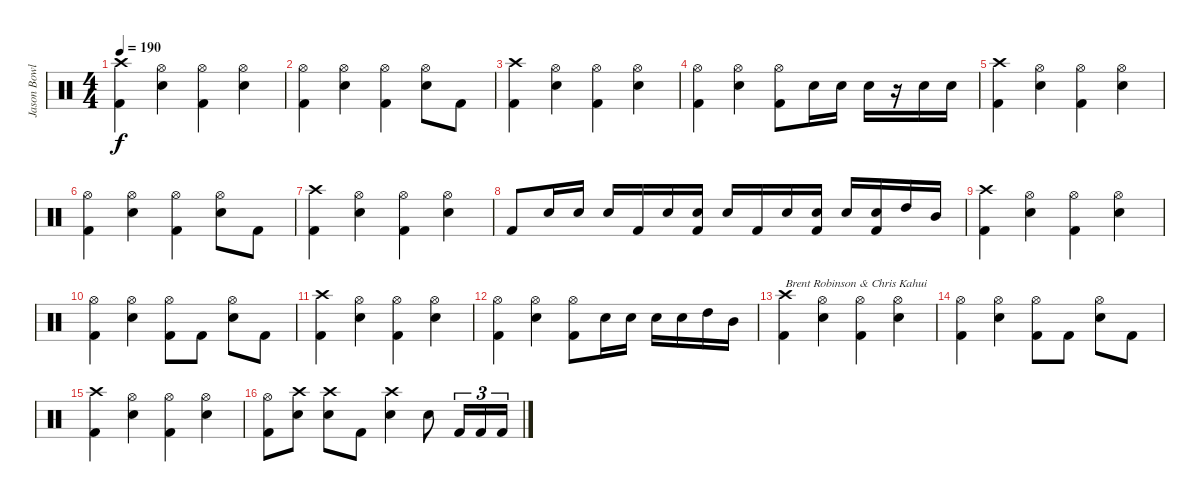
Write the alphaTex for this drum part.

\track ("Jason Bowld" "Jason Bowl") {instrument percussion}
\staff {score}
\articulation defaults
\ts (4 4)
\tempo 190
\clef neutral
\ks c
("Crash high (hit)" "Kick (hit) 2").4{dy f} ("Hi-Hat (open)" "Snare (hit) 2").4 ("Hi-Hat (open)" "Kick (hit) 2").4 ("Hi-Hat (open)" "Snare (hit) 2").4 |
("Hi-Hat (open)" "Kick (hit) 2").4 ("Hi-Hat (open)" "Snare (hit) 2").4 ("Hi-Hat (open)" "Kick (hit) 2").4 ("Hi-Hat (open)" "Snare (hit) 2").8 "Kick (hit) 2".8 |
("Crash high (hit)" "Kick (hit) 2").4 ("Hi-Hat (open)" "Snare (hit) 2").4 ("Hi-Hat (open)" "Kick (hit) 2").4 ("Hi-Hat (open)" "Snare (hit) 2").4 |
("Hi-Hat (open)" "Kick (hit) 2").4 ("Hi-Hat (open)" "Snare (hit) 2").4 ("Hi-Hat (open)" "Kick (hit) 2").8 "Snare (hit) 2".16 "Snare (hit) 2".16 "Snare (hit) 2".16 r.16 "Snare (hit) 2".16 "Snare (hit) 2".16 |
("Crash high (hit)" "Kick (hit) 2").4 ("Hi-Hat (open)" "Snare (hit) 2").4 ("Hi-Hat (open)" "Kick (hit) 2").4 ("Hi-Hat (open)" "Snare (hit) 2").4 |
("Hi-Hat (open)" "Kick (hit) 2").4 ("Hi-Hat (open)" "Snare (hit) 2").4 ("Hi-Hat (open)" "Kick (hit) 2").4 ("Hi-Hat (open)" "Snare (hit) 2").8 "Kick (hit) 2".8 |
("Crash high (hit)" "Kick (hit) 2").4 ("Hi-Hat (open)" "Snare (hit) 2").4 ("Hi-Hat (open)" "Kick (hit) 2").4 ("Hi-Hat (open)" "Snare (hit) 2").4 |
"Kick (hit) 2".8 "Snare (hit) 2".16 "Snare (hit) 2".16 "Snare (hit) 2".16 "Kick (hit) 2".16 "Snare (hit) 2".16 ("Snare (hit) 2" "Kick (hit) 2").16 "Snare (hit) 2".16 "Kick (hit) 2".16 "Snare (hit) 2".16 ("Snare (hit) 2" "Kick (hit) 2").16 "Snare (hit) 2".16 ("Snare (hit) 2" "Kick (hit) 2").16 "High Tom (hit)".16 "Mid Tom (hit)".16 |
("Crash high (hit)" "Kick (hit) 2").4 ("Hi-Hat (open)" "Snare (hit) 2").4 ("Hi-Hat (open)" "Kick (hit) 2").4 ("Hi-Hat (open)" "Snare (hit) 2").4 |
("Hi-Hat (open)" "Kick (hit) 2").4 ("Hi-Hat (open)" "Snare (hit) 2").4 ("Hi-Hat (open)" "Kick (hit) 2").8 "Kick (hit) 2".8 ("Hi-Hat (open)" "Snare (hit) 2").8 "Kick (hit) 2".8 |
("Crash high (hit)" "Kick (hit) 2").4 ("Hi-Hat (open)" "Snare (hit) 2").4 ("Hi-Hat (open)" "Kick (hit) 2").4 ("Hi-Hat (open)" "Snare (hit) 2").4 |
("Hi-Hat (open)" "Kick (hit) 2").4 ("Hi-Hat (open)" "Snare (hit) 2").4 ("Hi-Hat (open)" "Kick (hit) 2").8 "Snare (hit) 2".16 "Snare (hit) 2".16 "Snare (hit) 2".16 "Snare (hit) 2".16 "High Tom (hit)".16 "Mid Tom (hit)".16 |
("Crash high (hit)" "Kick (hit) 2").4{txt "Brent Robinson & Chris Kahui"} ("Hi-Hat (open)" "Snare (hit) 2").4 ("Hi-Hat (open)" "Kick (hit) 2").4 ("Hi-Hat (open)" "Snare (hit) 2").4 |
("Hi-Hat (open)" "Kick (hit) 2").4 ("Hi-Hat (open)" "Snare (hit) 2").4 ("Hi-Hat (open)" "Kick (hit) 2").8 "Kick (hit) 2".8 ("Hi-Hat (open)" "Snare (hit) 2").8 "Kick (hit) 2".8 |
("Crash high (hit)" "Kick (hit) 2").4 ("Hi-Hat (open)" "Snare (hit) 2").4 ("Hi-Hat (open)" "Kick (hit) 2").4 ("Hi-Hat (open)" "Snare (hit) 2").4 |
("Hi-Hat (open)" "Kick (hit) 2").8 ("Crash high (hit)" "Snare (hit) 2").8 ("Crash high (hit)" "Snare (hit) 2").8 "Kick (hit) 2".8 ("Crash high (hit)" "Snare (hit) 2").4 "Snare (hit) 2".8 "Kick (hit) 2".16{tu (3 2)} "Kick (hit) 2".16{tu (3 2)} "Kick (hit) 2".16{tu (3 2)}
